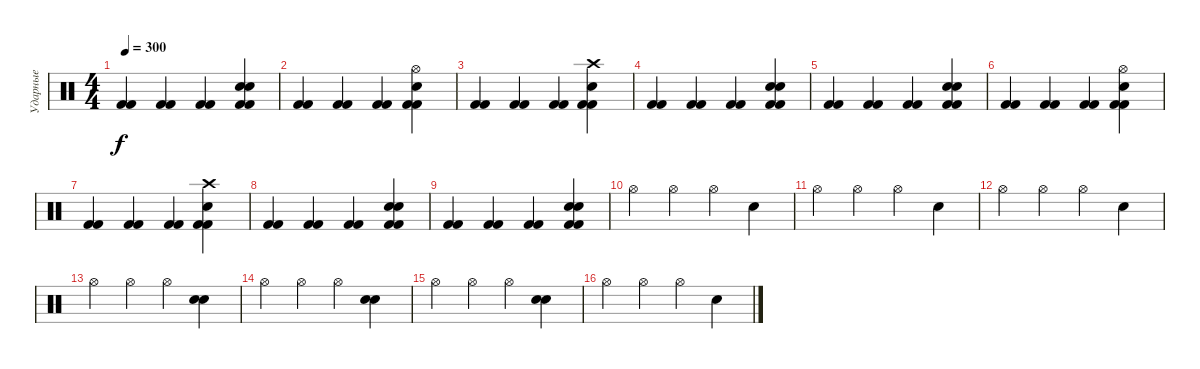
\track ("Ударные" "Ударные") {instrument percussion}
\staff {score}
\articulation defaults
\ts (4 4)
\tempo 300
\clef neutral
\ks c
("Kick (hit) 2" "Kick (hit) 2").4{dy f} ("Kick (hit) 2" "Kick (hit) 2").4 ("Kick (hit) 2" "Kick (hit) 2").4 ("Kick (hit) 2" "Kick (hit) 2" "Electric Snare (hit)" "Electric Snare (hit)").4 |
("Kick (hit) 2" "Kick (hit) 2").4 ("Kick (hit) 2" "Kick (hit) 2").4 ("Kick (hit) 2" "Kick (hit) 2").4 ("Kick (hit) 2" "Kick (hit) 2" "Hi-Hat (open)" "Electric Snare (hit)").4 |
("Kick (hit) 2" "Kick (hit) 2").4 ("Kick (hit) 2" "Kick (hit) 2").4 ("Kick (hit) 2" "Kick (hit) 2").4 ("Kick (hit) 2" "Kick (hit) 2" "Crash high (hit)" "Electric Snare (hit)").4 |
("Kick (hit) 2" "Kick (hit) 2").4 ("Kick (hit) 2" "Kick (hit) 2").4 ("Kick (hit) 2" "Kick (hit) 2").4 ("Kick (hit) 2" "Kick (hit) 2" "Electric Snare (hit)" "Electric Snare (hit)").4 |
("Kick (hit) 2" "Kick (hit) 2").4 ("Kick (hit) 2" "Kick (hit) 2").4 ("Kick (hit) 2" "Kick (hit) 2").4 ("Kick (hit) 2" "Kick (hit) 2" "Electric Snare (hit)" "Electric Snare (hit)").4 |
("Kick (hit) 2" "Kick (hit) 2").4 ("Kick (hit) 2" "Kick (hit) 2").4 ("Kick (hit) 2" "Kick (hit) 2").4 ("Kick (hit) 2" "Kick (hit) 2" "Hi-Hat (open)" "Electric Snare (hit)").4 |
("Kick (hit) 2" "Kick (hit) 2").4 ("Kick (hit) 2" "Kick (hit) 2").4 ("Kick (hit) 2" "Kick (hit) 2").4 ("Kick (hit) 2" "Kick (hit) 2" "Crash high (hit)" "Electric Snare (hit)").4 |
("Kick (hit) 2" "Kick (hit) 2").4 ("Kick (hit) 2" "Kick (hit) 2").4 ("Kick (hit) 2" "Kick (hit) 2").4 ("Kick (hit) 2" "Kick (hit) 2" "Electric Snare (hit)" "Electric Snare (hit)").4 |
("Kick (hit) 2" "Kick (hit) 2").4 ("Kick (hit) 2" "Kick (hit) 2").4 ("Kick (hit) 2" "Kick (hit) 2").4 ("Kick (hit) 2" "Kick (hit) 2" "Electric Snare (hit)" "Electric Snare (hit)").4 |
"Hi-Hat (open)".4 "Hi-Hat (open)".4 "Hi-Hat (open)".4 "Electric Snare (hit)".4 |
"Hi-Hat (open)".4 "Hi-Hat (open)".4 "Hi-Hat (open)".4 "Electric Snare (hit)".4 |
"Hi-Hat (open)".4 "Hi-Hat (open)".4 "Hi-Hat (open)".4 "Electric Snare (hit)".4 |
"Hi-Hat (open)".4 "Hi-Hat (open)".4 "Hi-Hat (open)".4 ("Electric Snare (hit)" "Electric Snare (hit)").4 |
"Hi-Hat (open)".4 "Hi-Hat (open)".4 "Hi-Hat (open)".4 ("Electric Snare (hit)" "Electric Snare (hit)").4 |
"Hi-Hat (open)".4 "Hi-Hat (open)".4 "Hi-Hat (open)".4 ("Electric Snare (hit)" "Electric Snare (hit)").4 |
"Hi-Hat (open)".4 "Hi-Hat (open)".4 "Hi-Hat (open)".4 "Electric Snare (hit)".4
